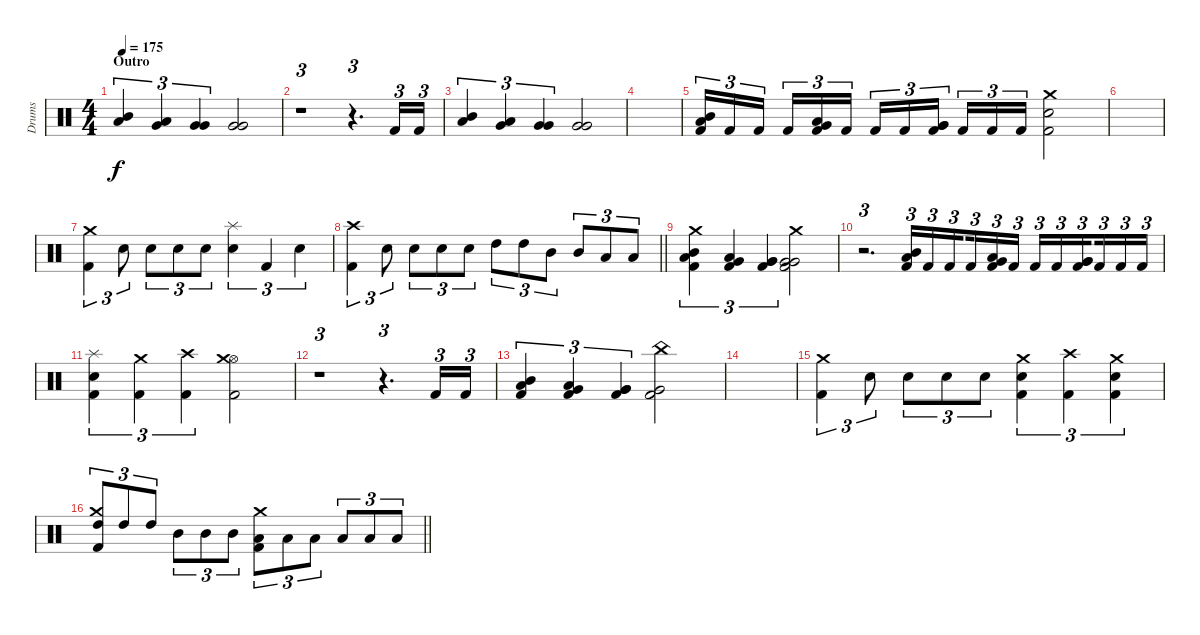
\track ("Drums" "Drums") {instrument percussion}
\staff {score}
\articulation defaults
\ts (4 4)
\section ("" "Outro")
\tempo 175
\clef neutral
\ks c
("Mid Tom (hit)" "Low Tom (hit)").4{tu (3 2) dy f} ("Low Tom (hit)" "Very Low Tom (hit)").4{tu (3 2)} ("Very Low Tom (hit)" "Very Low Tom (hit)").4{tu (3 2)} ("Very Low Tom (hit)" "Very Low Tom (hit)").2 |
r.1{tu (3 2)} r.4{d tu (3 2)} "Kick (hit) 2".16{tu (3 2)} "Kick (hit) 2".16{tu (3 2)} |
("Mid Tom (hit)" "Low Tom (hit)").4{tu (3 2)} ("Low Tom (hit)" "Very Low Tom (hit)").4{tu (3 2)} ("Very Low Tom (hit)" "Very Low Tom (hit)").4{tu (3 2)} ("Very Low Tom (hit)" "Very Low Tom (hit)").2 |
|
("Kick (hit) 2" "Mid Tom (hit)" "Low Tom (hit)").16{tu (3 2)} "Kick (hit) 2".16{tu (3 2)} "Kick (hit) 2".16{tu (3 2) beam splitsecondary} "Kick (hit) 2".16{tu (3 2)} ("Kick (hit) 2" "Low Tom (hit)" "Very Low Tom (hit)").16{tu (3 2)} "Kick (hit) 2".16{tu (3 2)} "Kick (hit) 2".16{tu (3 2)} "Kick (hit) 2".16{tu (3 2)} ("Kick (hit) 2" "Very Low Tom (hit)" "Very Low Tom (hit)").16{tu (3 2) beam splitsecondary} "Kick (hit) 2".16{tu (3 2)} "Kick (hit) 2".16{tu (3 2)} "Kick (hit) 2".16{tu (3 2)} ("Kick (hit) 2" "Snare (hit) 2" "Crash medium (hit)").2 |
|
("Kick (hit) 2" "Crash medium (hit)").4{tu (3 2)} "Snare (hit) 2".8{tu (3 2)} "Snare (hit) 2".8{tu (3 2)} "Snare (hit) 2".8{tu (3 2)} "Snare (hit) 2".8{tu (3 2)} ("Snare (hit) 2" "Splash (hit)").4{tu (3 2)} "Kick (hit) 2".4{tu (3 2)} "Snare (hit) 2".4{tu (3 2)} |
\barLineRight lightlight
("Kick (hit) 2" "Crash high (hit)").4{tu (3 2)} "Snare (hit) 2".8{tu (3 2)} "Snare (hit) 2".8{tu (3 2)} "Snare (hit) 2".8{tu (3 2)} "Snare (hit) 2".8{tu (3 2)} "High Tom (hit)".8{tu (3 2)} "High Tom (hit)".8{tu (3 2)} "Mid Tom (hit)".8{tu (3 2)} "Mid Tom (hit)".8{tu (3 2)} "Low Tom (hit)".8{tu (3 2)} "Low Tom (hit)".8{tu (3 2)} |
\section ("" "")
("Kick (hit) 2" "Mid Tom (hit)" "Low Tom (hit)" "Crash medium (hit)").4{tu (3 2)} ("Kick (hit) 2" "Low Tom (hit)" "Very Low Tom (hit)").4{tu (3 2)} ("Kick (hit) 2" "Very Low Tom (hit)" "Very Low Tom (hit)").4{tu (3 2)} ("Kick (hit) 2" "Very Low Tom (hit)" "Very Low Tom (hit)" "Crash medium (hit)").2 |
r.2{d tu (3 2)} ("Kick (hit) 2" "Mid Tom (hit)" "Low Tom (hit)").16{tu (3 2)} "Kick (hit) 2".16{tu (3 2)} "Kick (hit) 2".16{tu (3 2) beam splitsecondary} "Kick (hit) 2".16{tu (3 2)} ("Kick (hit) 2" "Low Tom (hit)" "Very Low Tom (hit)").16{tu (3 2)} "Kick (hit) 2".16{tu (3 2)} "Kick (hit) 2".16{tu (3 2)} "Kick (hit) 2".16{tu (3 2)} ("Kick (hit) 2" "Very Low Tom (hit)" "Very Low Tom (hit)").16{tu (3 2) beam splitsecondary} "Kick (hit) 2".16{tu (3 2)} "Kick (hit) 2".16{tu (3 2)} "Kick (hit) 2".16{tu (3 2)} |
("Kick (hit) 2" "Snare (hit) 2" "Splash (hit)").4{tu (3 2)} ("Kick (hit) 2" "Crash medium (hit)").4{tu (3 2)} ("Kick (hit) 2" "Crash high (hit)").4{tu (3 2)} ("Kick (hit) 2" "Hi-Hat (open)" "Crash medium (hit)").2 |
r.1{tu (3 2)} r.4{d tu (3 2)} "Kick (hit) 2".16{tu (3 2)} "Kick (hit) 2".16{tu (3 2)} |
("Kick (hit) 2" "Mid Tom (hit)" "Low Tom (hit)").4{tu (3 2)} ("Kick (hit) 2" "Low Tom (hit)" "Very Low Tom (hit)").4{tu (3 2)} ("Kick (hit) 2" "Very Low Tom (hit)" "Very Low Tom (hit)").4{tu (3 2)} ("Kick (hit) 2" "Very Low Tom (hit)" "China (hit)").2 |
|
("Kick (hit) 2" "Crash medium (hit)").4{tu (3 2)} "Snare (hit) 2".8{tu (3 2)} "Snare (hit) 2".8{tu (3 2)} "Snare (hit) 2".8{tu (3 2)} "Snare (hit) 2".8{tu (3 2)} ("Kick (hit) 2" "Snare (hit) 2" "Crash medium (hit)").4{tu (3 2)} ("Kick (hit) 2" "Crash high (hit)").4{tu (3 2)} ("Kick (hit) 2" "Snare (hit) 2" "Crash medium (hit)").4{tu (3 2)} |
\barLineRight lightlight
("Kick (hit) 2" "High Tom (hit)" "Crash medium (hit)").8{tu (3 2)} "High Tom (hit)".8{tu (3 2)} "High Tom (hit)".8{tu (3 2)} "Mid Tom (hit)".8{tu (3 2)} "Mid Tom (hit)".8{tu (3 2)} "Mid Tom (hit)".8{tu (3 2)} ("Kick (hit) 2" "Low Tom (hit)" "Crash medium (hit)").8{tu (3 2)} "Low Tom (hit)".8{tu (3 2)} "Low Tom (hit)".8{tu (3 2)} "Low Tom (hit)".8{tu (3 2)} "Low Tom (hit)".8{tu (3 2)} "Low Tom (hit)".8{tu (3 2)}
